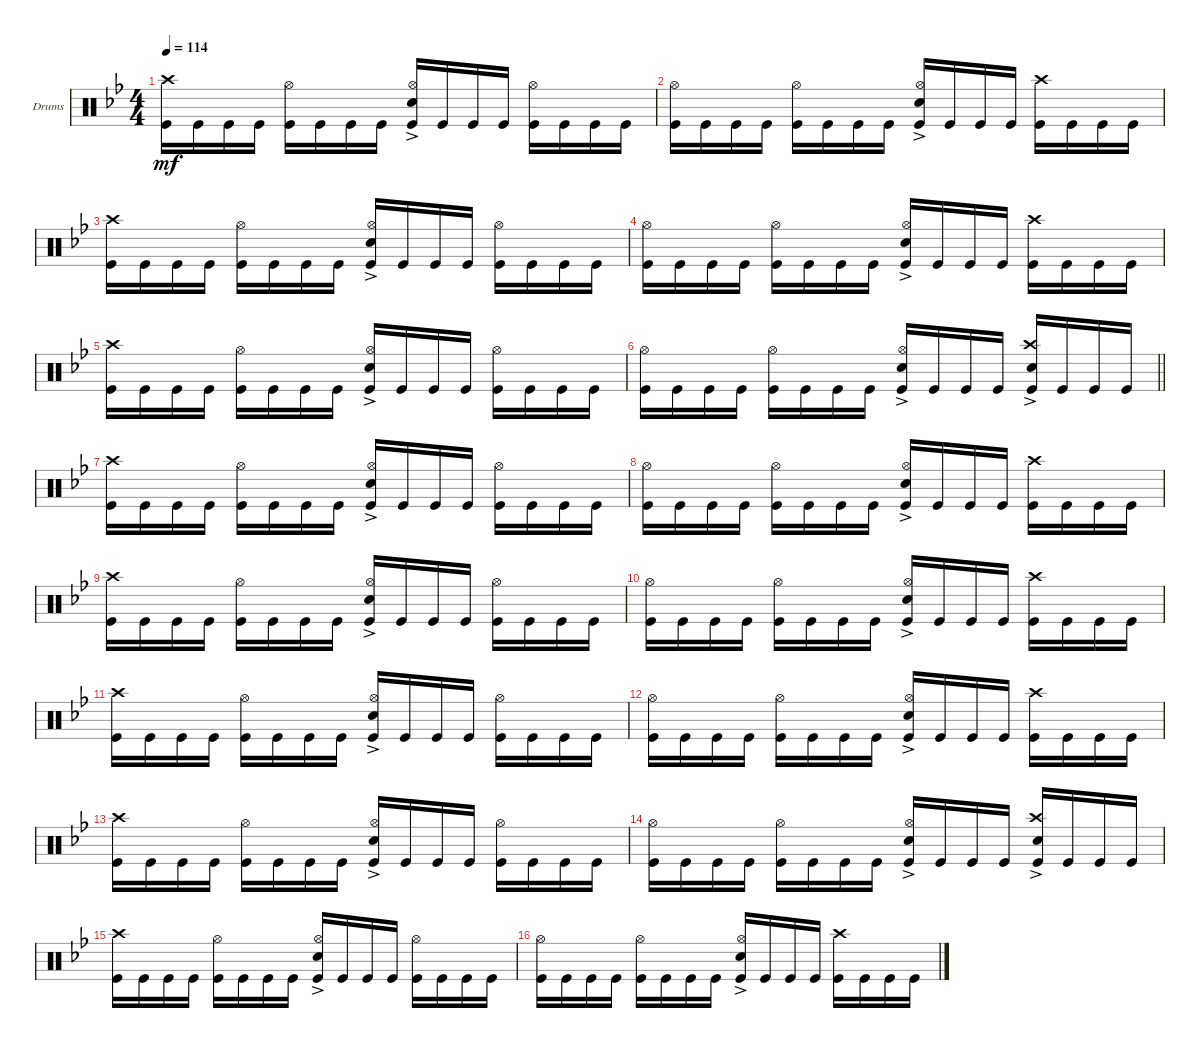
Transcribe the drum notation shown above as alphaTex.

\bracketExtendMode groupsimilarinstruments
\firstSystemTrackNameOrientation horizontal
\otherSystemsTrackNameOrientation horizontal
\track ("Drumkit" "Drums") {instrument percussion}
\staff {score}
\articulation defaults
\ts (4 4)
\tempo 114
\clef neutral
\ks gminor
("Kick (hit)" "Crash high (hit)").16{dy mf} "Kick (hit)".16 "Kick (hit)".16 "Kick (hit)".16 ("Kick (hit)" "Hi-Hat (open)").16 "Kick (hit)".16 "Kick (hit)".16 "Kick (hit)".16 ("Kick (hit)" "Snare (hit) 2"{ac} "Hi-Hat (open)").16 "Kick (hit)".16 "Kick (hit)".16 "Kick (hit)".16 ("Kick (hit)" "Hi-Hat (open)").16 "Kick (hit)".16 "Kick (hit)".16 "Kick (hit)".16 |
("Kick (hit)" "Hi-Hat (open)").16 "Kick (hit)".16 "Kick (hit)".16 "Kick (hit)".16 ("Kick (hit)" "Hi-Hat (open)").16 "Kick (hit)".16 "Kick (hit)".16 "Kick (hit)".16 ("Kick (hit)" "Snare (hit) 2"{ac} "Hi-Hat (open)").16 "Kick (hit)".16 "Kick (hit)".16 "Kick (hit)".16 ("Kick (hit)" "Crash high (hit)").16 "Kick (hit)".16 "Kick (hit)".16 "Kick (hit)".16 |
("Kick (hit)" "Crash high (hit)").16 "Kick (hit)".16 "Kick (hit)".16 "Kick (hit)".16 ("Kick (hit)" "Hi-Hat (open)").16 "Kick (hit)".16 "Kick (hit)".16 "Kick (hit)".16 ("Kick (hit)" "Snare (hit) 2"{ac} "Hi-Hat (open)").16 "Kick (hit)".16 "Kick (hit)".16 "Kick (hit)".16 ("Kick (hit)" "Hi-Hat (open)").16 "Kick (hit)".16 "Kick (hit)".16 "Kick (hit)".16 |
("Kick (hit)" "Hi-Hat (open)").16 "Kick (hit)".16 "Kick (hit)".16 "Kick (hit)".16 ("Kick (hit)" "Hi-Hat (open)").16 "Kick (hit)".16 "Kick (hit)".16 "Kick (hit)".16 ("Kick (hit)" "Snare (hit) 2"{ac} "Hi-Hat (open)").16 "Kick (hit)".16 "Kick (hit)".16 "Kick (hit)".16 ("Kick (hit)" "Crash high (hit)").16 "Kick (hit)".16 "Kick (hit)".16 "Kick (hit)".16 |
("Kick (hit)" "Crash high (hit)").16 "Kick (hit)".16 "Kick (hit)".16 "Kick (hit)".16 ("Kick (hit)" "Hi-Hat (open)").16 "Kick (hit)".16 "Kick (hit)".16 "Kick (hit)".16 ("Kick (hit)" "Snare (hit) 2"{ac} "Hi-Hat (open)").16 "Kick (hit)".16 "Kick (hit)".16 "Kick (hit)".16 ("Kick (hit)" "Hi-Hat (open)").16 "Kick (hit)".16 "Kick (hit)".16 "Kick (hit)".16 |
\barLineRight lightlight
("Kick (hit)" "Hi-Hat (open)").16 "Kick (hit)".16 "Kick (hit)".16 "Kick (hit)".16 ("Kick (hit)" "Hi-Hat (open)").16 "Kick (hit)".16 "Kick (hit)".16 "Kick (hit)".16 ("Kick (hit)" "Snare (hit) 2"{ac} "Hi-Hat (open)").16 "Kick (hit)".16 "Kick (hit)".16 "Kick (hit)".16 ("Kick (hit)" "Crash high (hit)" "Snare (hit) 2"{ac}).16 "Kick (hit)".16 "Kick (hit)".16 "Kick (hit)".16 |
("Kick (hit)" "Crash high (hit)").16 "Kick (hit)".16 "Kick (hit)".16 "Kick (hit)".16 ("Kick (hit)" "Hi-Hat (open)").16 "Kick (hit)".16 "Kick (hit)".16 "Kick (hit)".16 ("Kick (hit)" "Snare (hit) 2"{ac} "Hi-Hat (open)").16 "Kick (hit)".16 "Kick (hit)".16 "Kick (hit)".16 ("Kick (hit)" "Hi-Hat (open)").16 "Kick (hit)".16 "Kick (hit)".16 "Kick (hit)".16 |
("Kick (hit)" "Hi-Hat (open)").16 "Kick (hit)".16 "Kick (hit)".16 "Kick (hit)".16 ("Kick (hit)" "Hi-Hat (open)").16 "Kick (hit)".16 "Kick (hit)".16 "Kick (hit)".16 ("Kick (hit)" "Snare (hit) 2"{ac} "Hi-Hat (open)").16 "Kick (hit)".16 "Kick (hit)".16 "Kick (hit)".16 ("Kick (hit)" "Crash high (hit)").16 "Kick (hit)".16 "Kick (hit)".16 "Kick (hit)".16 |
("Kick (hit)" "Crash high (hit)").16 "Kick (hit)".16 "Kick (hit)".16 "Kick (hit)".16 ("Kick (hit)" "Hi-Hat (open)").16 "Kick (hit)".16 "Kick (hit)".16 "Kick (hit)".16 ("Kick (hit)" "Snare (hit) 2"{ac} "Hi-Hat (open)").16 "Kick (hit)".16 "Kick (hit)".16 "Kick (hit)".16 ("Kick (hit)" "Hi-Hat (open)").16 "Kick (hit)".16 "Kick (hit)".16 "Kick (hit)".16 |
("Kick (hit)" "Hi-Hat (open)").16 "Kick (hit)".16 "Kick (hit)".16 "Kick (hit)".16 ("Kick (hit)" "Hi-Hat (open)").16 "Kick (hit)".16 "Kick (hit)".16 "Kick (hit)".16 ("Kick (hit)" "Snare (hit) 2"{ac} "Hi-Hat (open)").16 "Kick (hit)".16 "Kick (hit)".16 "Kick (hit)".16 ("Kick (hit)" "Crash high (hit)").16 "Kick (hit)".16 "Kick (hit)".16 "Kick (hit)".16 |
("Kick (hit)" "Crash high (hit)").16 "Kick (hit)".16 "Kick (hit)".16 "Kick (hit)".16 ("Kick (hit)" "Hi-Hat (open)").16 "Kick (hit)".16 "Kick (hit)".16 "Kick (hit)".16 ("Kick (hit)" "Snare (hit) 2"{ac} "Hi-Hat (open)").16 "Kick (hit)".16 "Kick (hit)".16 "Kick (hit)".16 ("Kick (hit)" "Hi-Hat (open)").16 "Kick (hit)".16 "Kick (hit)".16 "Kick (hit)".16 |
("Kick (hit)" "Hi-Hat (open)").16 "Kick (hit)".16 "Kick (hit)".16 "Kick (hit)".16 ("Kick (hit)" "Hi-Hat (open)").16 "Kick (hit)".16 "Kick (hit)".16 "Kick (hit)".16 ("Kick (hit)" "Snare (hit) 2"{ac} "Hi-Hat (open)").16 "Kick (hit)".16 "Kick (hit)".16 "Kick (hit)".16 ("Kick (hit)" "Crash high (hit)").16 "Kick (hit)".16 "Kick (hit)".16 "Kick (hit)".16 |
("Kick (hit)" "Crash high (hit)").16 "Kick (hit)".16 "Kick (hit)".16 "Kick (hit)".16 ("Kick (hit)" "Hi-Hat (open)").16 "Kick (hit)".16 "Kick (hit)".16 "Kick (hit)".16 ("Kick (hit)" "Snare (hit) 2"{ac} "Hi-Hat (open)").16 "Kick (hit)".16 "Kick (hit)".16 "Kick (hit)".16 ("Kick (hit)" "Hi-Hat (open)").16 "Kick (hit)".16 "Kick (hit)".16 "Kick (hit)".16 |
("Kick (hit)" "Hi-Hat (open)").16 "Kick (hit)".16 "Kick (hit)".16 "Kick (hit)".16 ("Kick (hit)" "Hi-Hat (open)").16 "Kick (hit)".16 "Kick (hit)".16 "Kick (hit)".16 ("Kick (hit)" "Snare (hit) 2"{ac} "Hi-Hat (open)").16 "Kick (hit)".16 "Kick (hit)".16 "Kick (hit)".16 ("Kick (hit)" "Crash high (hit)" "Snare (hit) 2"{ac}).16 "Kick (hit)".16 "Kick (hit)".16 "Kick (hit)".16 |
("Kick (hit)" "Crash high (hit)").16 "Kick (hit)".16 "Kick (hit)".16 "Kick (hit)".16 ("Kick (hit)" "Hi-Hat (open)").16 "Kick (hit)".16 "Kick (hit)".16 "Kick (hit)".16 ("Kick (hit)" "Snare (hit) 2"{ac} "Hi-Hat (open)").16 "Kick (hit)".16 "Kick (hit)".16 "Kick (hit)".16 ("Kick (hit)" "Hi-Hat (open)").16 "Kick (hit)".16 "Kick (hit)".16 "Kick (hit)".16 |
("Kick (hit)" "Hi-Hat (open)").16 "Kick (hit)".16 "Kick (hit)".16 "Kick (hit)".16 ("Kick (hit)" "Hi-Hat (open)").16 "Kick (hit)".16 "Kick (hit)".16 "Kick (hit)".16 ("Kick (hit)" "Snare (hit) 2"{ac} "Hi-Hat (open)").16 "Kick (hit)".16 "Kick (hit)".16 "Kick (hit)".16 ("Kick (hit)" "Crash high (hit)").16 "Kick (hit)".16 "Kick (hit)".16 "Kick (hit)".16
